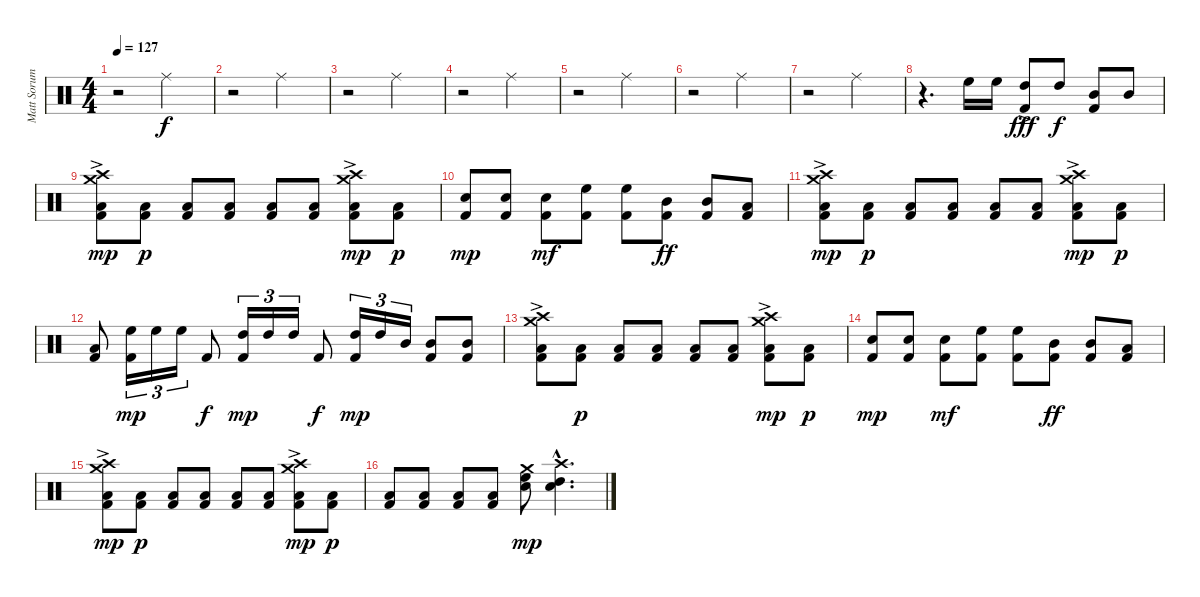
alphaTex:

\track ("Matt Sorum" "Matt Sorum") {instrument percussion}
\staff {score}
\articulation defaults
\ts (4 4)
\tempo 127
\clef neutral
\ks c
r.2{dy f} "Ride (middle)".2 |
r.2 "Ride (middle)".2 |
r.2 "Ride (middle)".2 |
r.2 "Ride (middle)".2 |
r.2 "Ride (middle)".2 |
r.2 "Ride (middle)".2 |
r.2 "Ride (middle)".2 |
r.4{d} "High Floor Tom (hit)".16{volume 16} "High Floor Tom (hit)".16 ("Kick (hit) 2" "High Tom (hit)"{ac}).8{dy fff} "High Tom (hit)".8{dy f} ("Kick (hit) 2" "Mid Tom (hit)").8 "Mid Tom (hit)".8 |
("Kick (hit) 2"{ac} "Crash high (hit)" "Low Tom (hit)" "Crash medium (hit)").8{dy mp} ("Kick (hit) 2" "Low Tom (hit)").8{dy p} ("Kick (hit) 2" "Low Tom (hit)").8 ("Kick (hit) 2" "Low Tom (hit)").8 ("Kick (hit) 2" "Low Tom (hit)").8 ("Kick (hit) 2" "Low Tom (hit)").8 ("Kick (hit) 2"{ac} "Crash high (hit)" "Low Tom (hit)" "Crash medium (hit)").8{dy mp} ("Kick (hit) 2" "Low Tom (hit)").8{dy p} |
("Kick (hit) 2" "Snare (hit) 2").8{dy mp} ("Kick (hit) 2" "Snare (hit) 2").8 ("Kick (hit) 2" "Snare (hit) 2").8{dy mf} ("Kick (hit) 2" "High Floor Tom (hit)").8 ("Kick (hit) 2" "High Floor Tom (hit)").8 ("Kick (hit) 2" "Mid Tom (hit)").8{dy ff} ("Kick (hit) 2" "Mid Tom (hit)").8 ("Kick (hit) 2" "Low Tom (hit)").8 |
("Kick (hit) 2"{ac} "Crash high (hit)" "Low Tom (hit)" "Crash medium (hit)").8{dy mp} ("Kick (hit) 2" "Low Tom (hit)").8{dy p} ("Kick (hit) 2" "Low Tom (hit)").8 ("Kick (hit) 2" "Low Tom (hit)").8 ("Kick (hit) 2" "Low Tom (hit)").8 ("Kick (hit) 2" "Low Tom (hit)").8 ("Kick (hit) 2"{ac} "Crash high (hit)" "Low Tom (hit)" "Crash medium (hit)").8{dy mp} ("Kick (hit) 2" "Low Tom (hit)").8{dy p} |
("Kick (hit) 2" "Low Tom (hit)").8 ("Kick (hit) 2" "High Floor Tom (hit)").16{tu (3 2) dy mp} "High Floor Tom (hit)".16{tu (3 2)} "High Floor Tom (hit)".16{tu (3 2)} "Kick (hit) 2".8{dy f} ("Kick (hit) 2" "High Tom (hit)").16{tu (3 2) dy mp} "High Tom (hit)".16{tu (3 2)} "High Tom (hit)".16{tu (3 2)} "Kick (hit) 2".8{dy f} ("Kick (hit) 2" "High Tom (hit)").16{tu (3 2) dy mp} "High Tom (hit)".16{tu (3 2)} "Mid Tom (hit)".16{tu (3 2)} ("Kick (hit) 2" "Mid Tom (hit)").8 ("Kick (hit) 2" "Mid Tom (hit)").8 |
("Kick (hit) 2"{ac} "Crash high (hit)" "Low Tom (hit)" "Crash medium (hit)").8 ("Kick (hit) 2" "Low Tom (hit)").8{dy p} ("Kick (hit) 2" "Low Tom (hit)").8 ("Kick (hit) 2" "Low Tom (hit)").8 ("Kick (hit) 2" "Low Tom (hit)").8 ("Kick (hit) 2" "Low Tom (hit)").8 ("Kick (hit) 2"{ac} "Crash high (hit)" "Low Tom (hit)" "Crash medium (hit)").8{dy mp} ("Kick (hit) 2" "Low Tom (hit)").8{dy p} |
("Kick (hit) 2" "Snare (hit) 2").8{dy mp} ("Kick (hit) 2" "Snare (hit) 2").8 ("Kick (hit) 2" "Snare (hit) 2").8{dy mf} ("Kick (hit) 2" "High Floor Tom (hit)").8 ("Kick (hit) 2" "High Floor Tom (hit)").8 ("Kick (hit) 2" "Mid Tom (hit)").8{dy ff} ("Kick (hit) 2" "Mid Tom (hit)").8 ("Kick (hit) 2" "Low Tom (hit)").8 |
("Kick (hit) 2"{ac} "Crash high (hit)" "Low Tom (hit)" "Crash medium (hit)").8{dy mp} ("Kick (hit) 2" "Low Tom (hit)").8{dy p} ("Kick (hit) 2" "Low Tom (hit)").8 ("Kick (hit) 2" "Low Tom (hit)").8 ("Kick (hit) 2" "Low Tom (hit)").8 ("Kick (hit) 2" "Low Tom (hit)").8 ("Kick (hit) 2"{ac} "Crash high (hit)" "Low Tom (hit)" "Crash medium (hit)").8{dy mp} ("Kick (hit) 2" "Low Tom (hit)").8{dy p} |
("Kick (hit) 2" "Low Tom (hit)").8 ("Kick (hit) 2" "Low Tom (hit)").8 ("Kick (hit) 2" "Low Tom (hit)").8 ("Kick (hit) 2" "Low Tom (hit)").8 ("Snare (hit) 2" "Crash medium (hit)" "High Floor Tom (hit)").8{dy mp} ("Snare (hit) 2"{hac} "Crash high (hit)"{hac} "High Tom (hit)"{hac}).4{d}
